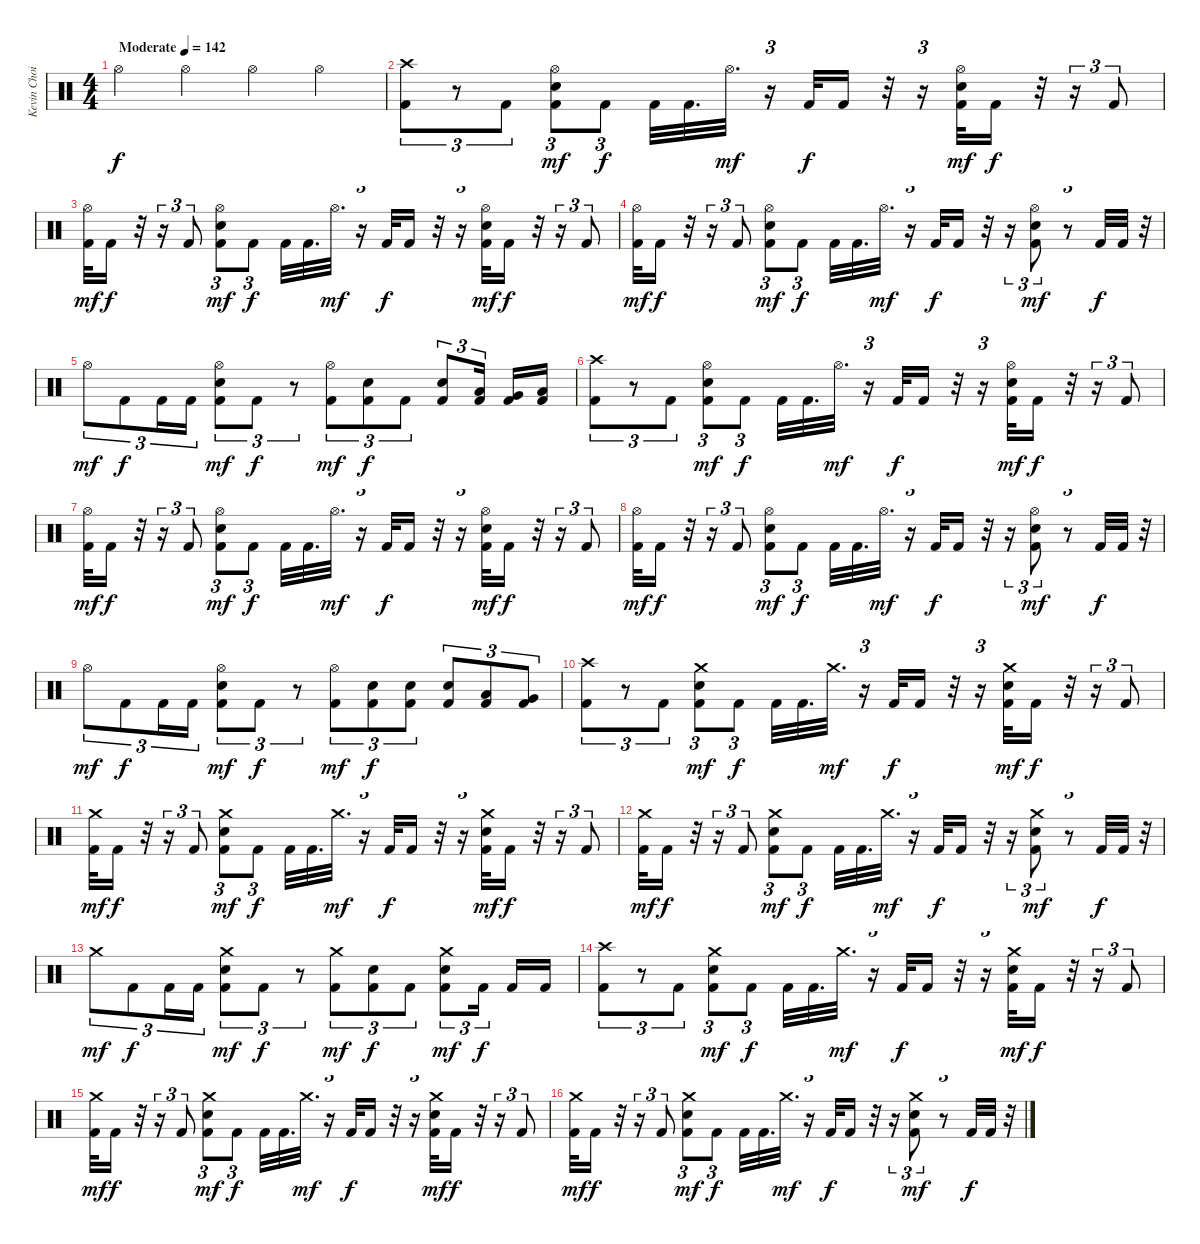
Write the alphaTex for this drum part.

\track ("Kevin Choiral" "Kevin Choi") {instrument percussion}
\staff
\articulation defaults
\ts (4 4)
\tempo (142 "Moderate")
\clef neutral
\ks c "Hi-Hat (open)".4{dy f} "Hi-Hat (open)".4 "Hi-Hat (open)".4 "Hi-Hat (open)".4
|
("Crash high (hit)" "Kick (hit) 2").8{tu (3 2)} r.8{tu (3 2)} "Kick (hit) 2".8{tu (3 2)} ("Hi-Hat (open)" "Electric Snare (hit)" "Kick (hit) 2").8{tu (3 2) dy mf} "Kick (hit) 2".8{tu (3 2) dy f} "Kick (hit) 2".32 "Kick (hit) 2".32{d} "Hi-Hat (open)".32{d dy mf} r.16{tu (3 2)} "Kick (hit) 2".32{dy f} "Kick (hit) 2".16 r.32 r.16{tu (3 2)} ("Hi-Hat (open)" "Electric Snare (hit)" "Kick (hit) 2").32{dy mf} "Kick (hit) 2".16{dy f} r.32 r.16{tu (3 2)} "Kick (hit) 2".8{tu (3 2)} |
("Hi-Hat (open)" "Kick (hit) 2").32{dy mf} "Kick (hit) 2".16{dy f} r.32 r.16{tu (3 2)} "Kick (hit) 2".8{tu (3 2)} ("Hi-Hat (open)" "Electric Snare (hit)" "Kick (hit) 2").8{tu (3 2) dy mf} "Kick (hit) 2".8{tu (3 2) dy f} "Kick (hit) 2".32 "Kick (hit) 2".32{d} "Hi-Hat (open)".32{d dy mf} r.16{tu (3 2)} "Kick (hit) 2".32{dy f} "Kick (hit) 2".16 r.32 r.16{tu (3 2)} ("Hi-Hat (open)" "Electric Snare (hit)" "Kick (hit) 2").32{dy mf} "Kick (hit) 2".16{dy f} r.32 r.16{tu (3 2)} "Kick (hit) 2".8{tu (3 2)} |
("Hi-Hat (open)" "Kick (hit) 2").32{dy mf} "Kick (hit) 2".16{dy f} r.32 r.16{tu (3 2)} "Kick (hit) 2".8{tu (3 2)} ("Hi-Hat (open)" "Electric Snare (hit)" "Kick (hit) 2").8{tu (3 2) dy mf} "Kick (hit) 2".8{tu (3 2) dy f} "Kick (hit) 2".32 "Kick (hit) 2".32{d} "Hi-Hat (open)".32{d dy mf} r.16{tu (3 2)} "Kick (hit) 2".32{dy f} "Kick (hit) 2".16 r.32 r.16{tu (3 2)} ("Hi-Hat (open)" "Electric Snare (hit)" "Kick (hit) 2").8{tu (3 2) dy mf} r.8{tu (3 2)} "Kick (hit) 2".32{dy f} "Kick (hit) 2".32 r.32{tu (3 2)} |
"Hi-Hat (open)".8{tu (3 2) dy mf} "Kick (hit) 2".8{tu (3 2) dy f} "Kick (hit) 2".16{tu (3 2)} "Kick (hit) 2".16{tu (3 2)} ("Hi-Hat (open)" "Electric Snare (hit)" "Kick (hit) 2").8{tu (3 2) dy mf} "Kick (hit) 2".8{tu (3 2) dy f} r.8{tu (3 2)} ("Hi-Hat (open)" "Kick (hit) 2").8{tu (3 2) dy mf} ("Electric Snare (hit)" "Kick (hit) 2").8{tu (3 2) dy f} "Kick (hit) 2".8{tu (3 2)} ("Electric Snare (hit)" "Kick (hit) 2").8{tu (3 2)} ("Low Tom (hit)" "Kick (hit) 2").16{tu (3 2) beam splitsecondary} ("Very Low Tom (hit)" "Kick (hit) 2").16 ("Low Floor Tom (hit)" "Kick (hit) 2").16 |
("Crash high (hit)" "Kick (hit) 2").8{tu (3 2)} r.8{tu (3 2)} "Kick (hit) 2".8{tu (3 2)} ("Hi-Hat (open)" "Electric Snare (hit)" "Kick (hit) 2").8{tu (3 2) dy mf} "Kick (hit) 2".8{tu (3 2) dy f} "Kick (hit) 2".32 "Kick (hit) 2".32{d} "Hi-Hat (open)".32{d dy mf} r.16{tu (3 2)} "Kick (hit) 2".32{dy f} "Kick (hit) 2".16 r.32 r.16{tu (3 2)} ("Hi-Hat (open)" "Electric Snare (hit)" "Kick (hit) 2").32{dy mf} "Kick (hit) 2".16{dy f} r.32 r.16{tu (3 2)} "Kick (hit) 2".8{tu (3 2)} |
("Hi-Hat (open)" "Kick (hit) 2").32{dy mf} "Kick (hit) 2".16{dy f} r.32 r.16{tu (3 2)} "Kick (hit) 2".8{tu (3 2)} ("Hi-Hat (open)" "Electric Snare (hit)" "Kick (hit) 2").8{tu (3 2) dy mf} "Kick (hit) 2".8{tu (3 2) dy f} "Kick (hit) 2".32 "Kick (hit) 2".32{d} "Hi-Hat (open)".32{d dy mf} r.16{tu (3 2)} "Kick (hit) 2".32{dy f} "Kick (hit) 2".16 r.32 r.16{tu (3 2)} ("Hi-Hat (open)" "Electric Snare (hit)" "Kick (hit) 2").32{dy mf} "Kick (hit) 2".16{dy f} r.32 r.16{tu (3 2)} "Kick (hit) 2".8{tu (3 2)} |
("Hi-Hat (open)" "Kick (hit) 2").32{dy mf} "Kick (hit) 2".16{dy f} r.32 r.16{tu (3 2)} "Kick (hit) 2".8{tu (3 2)} ("Hi-Hat (open)" "Electric Snare (hit)" "Kick (hit) 2").8{tu (3 2) dy mf} "Kick (hit) 2".8{tu (3 2) dy f} "Kick (hit) 2".32 "Kick (hit) 2".32{d} "Hi-Hat (open)".32{d dy mf} r.16{tu (3 2)} "Kick (hit) 2".32{dy f} "Kick (hit) 2".16 r.32 r.16{tu (3 2)} ("Hi-Hat (open)" "Electric Snare (hit)" "Kick (hit) 2").8{tu (3 2) dy mf} r.8{tu (3 2)} "Kick (hit) 2".32{dy f} "Kick (hit) 2".32 r.32{tu (3 2)} |
"Hi-Hat (open)".8{tu (3 2) dy mf} "Kick (hit) 2".8{tu (3 2) dy f} "Kick (hit) 2".16{tu (3 2)} "Kick (hit) 2".16{tu (3 2)} ("Hi-Hat (open)" "Electric Snare (hit)" "Kick (hit) 2").8{tu (3 2) dy mf} "Kick (hit) 2".8{tu (3 2) dy f} r.8{tu (3 2)} ("Hi-Hat (open)" "Kick (hit) 2").8{tu (3 2) dy mf} ("Electric Snare (hit)" "Kick (hit) 2").8{tu (3 2) dy f} ("Electric Snare (hit)" "Kick (hit) 2").8{tu (3 2)} ("Electric Snare (hit)" "Kick (hit) 2").8{tu (3 2)} ("Low Tom (hit)" "Kick (hit) 2").8{tu (3 2)} ("Very Low Tom (hit)" "Kick (hit) 2").8{tu (3 2)} |
("Crash high (hit)" "Kick (hit) 2").8{tu (3 2)} r.8{tu (3 2)} "Kick (hit) 2".8{tu (3 2)} ("Crash medium (hit)" "Electric Snare (hit)" "Kick (hit) 2").8{tu (3 2) dy mf} "Kick (hit) 2".8{tu (3 2) dy f} "Kick (hit) 2".32 "Kick (hit) 2".32{d} "Crash medium (hit)".32{d dy mf} r.16{tu (3 2)} "Kick (hit) 2".32{dy f} "Kick (hit) 2".16 r.32 r.16{tu (3 2)} ("Crash medium (hit)" "Electric Snare (hit)" "Kick (hit) 2").32{dy mf} "Kick (hit) 2".16{dy f} r.32 r.16{tu (3 2)} "Kick (hit) 2".8{tu (3 2)} |
("Crash medium (hit)" "Kick (hit) 2").32{dy mf} "Kick (hit) 2".16{dy f} r.32 r.16{tu (3 2)} "Kick (hit) 2".8{tu (3 2)} ("Crash medium (hit)" "Electric Snare (hit)" "Kick (hit) 2").8{tu (3 2) dy mf} "Kick (hit) 2".8{tu (3 2) dy f} "Kick (hit) 2".32 "Kick (hit) 2".32{d} "Crash medium (hit)".32{d dy mf} r.16{tu (3 2)} "Kick (hit) 2".32{dy f} "Kick (hit) 2".16 r.32 r.16{tu (3 2)} ("Crash medium (hit)" "Electric Snare (hit)" "Kick (hit) 2").32{dy mf} "Kick (hit) 2".16{dy f} r.32 r.16{tu (3 2)} "Kick (hit) 2".8{tu (3 2)} |
("Crash medium (hit)" "Kick (hit) 2").32{dy mf} "Kick (hit) 2".16{dy f} r.32 r.16{tu (3 2)} "Kick (hit) 2".8{tu (3 2)} ("Crash medium (hit)" "Electric Snare (hit)" "Kick (hit) 2").8{tu (3 2) dy mf} "Kick (hit) 2".8{tu (3 2) dy f} "Kick (hit) 2".32 "Kick (hit) 2".32{d} "Crash medium (hit)".32{d dy mf} r.16{tu (3 2)} "Kick (hit) 2".32{dy f} "Kick (hit) 2".16 r.32 r.16{tu (3 2)} ("Crash medium (hit)" "Electric Snare (hit)" "Kick (hit) 2").8{tu (3 2) dy mf} r.8{tu (3 2)} "Kick (hit) 2".32{dy f} "Kick (hit) 2".32 r.32{tu (3 2)} |
"Crash medium (hit)".8{tu (3 2) dy mf} "Kick (hit) 2".8{tu (3 2) dy f} "Kick (hit) 2".16{tu (3 2)} "Kick (hit) 2".16{tu (3 2)} ("Crash medium (hit)" "Electric Snare (hit)" "Kick (hit) 2").8{tu (3 2) dy mf} "Kick (hit) 2".8{tu (3 2) dy f} r.8{tu (3 2)} ("Crash medium (hit)" "Kick (hit) 2").8{tu (3 2) dy mf} ("Electric Snare (hit)" "Kick (hit) 2").8{tu (3 2) dy f} "Kick (hit) 2".8{tu (3 2)} ("Crash medium (hit)" "Electric Snare (hit)" "Kick (hit) 2").8{tu (3 2) dy mf} "Kick (hit) 2".16{tu (3 2) dy f beam splitsecondary} "Kick (hit) 2".16 "Kick (hit) 2".16 |
("Crash high (hit)" "Kick (hit) 2").8{tu (3 2)} r.8{tu (3 2)} "Kick (hit) 2".8{tu (3 2)} ("Crash medium (hit)" "Electric Snare (hit)" "Kick (hit) 2").8{tu (3 2) dy mf} "Kick (hit) 2".8{tu (3 2) dy f} "Kick (hit) 2".32 "Kick (hit) 2".32{d} "Crash medium (hit)".32{d dy mf} r.16{tu (3 2)} "Kick (hit) 2".32{dy f} "Kick (hit) 2".16 r.32 r.16{tu (3 2)} ("Crash medium (hit)" "Electric Snare (hit)" "Kick (hit) 2").32{dy mf} "Kick (hit) 2".16{dy f} r.32 r.16{tu (3 2)} "Kick (hit) 2".8{tu (3 2)} |
("Crash medium (hit)" "Kick (hit) 2").32{dy mf} "Kick (hit) 2".16{dy f} r.32 r.16{tu (3 2)} "Kick (hit) 2".8{tu (3 2)} ("Crash medium (hit)" "Electric Snare (hit)" "Kick (hit) 2").8{tu (3 2) dy mf} "Kick (hit) 2".8{tu (3 2) dy f} "Kick (hit) 2".32 "Kick (hit) 2".32{d} "Crash medium (hit)".32{d dy mf} r.16{tu (3 2)} "Kick (hit) 2".32{dy f} "Kick (hit) 2".16 r.32 r.16{tu (3 2)} ("Crash medium (hit)" "Electric Snare (hit)" "Kick (hit) 2").32{dy mf} "Kick (hit) 2".16{dy f} r.32 r.16{tu (3 2)} "Kick (hit) 2".8{tu (3 2)} |
("Crash medium (hit)" "Kick (hit) 2").32{dy mf} "Kick (hit) 2".16{dy f} r.32 r.16{tu (3 2)} "Kick (hit) 2".8{tu (3 2)} ("Crash medium (hit)" "Electric Snare (hit)" "Kick (hit) 2").8{tu (3 2) dy mf} "Kick (hit) 2".8{tu (3 2) dy f} "Kick (hit) 2".32 "Kick (hit) 2".32{d} "Crash medium (hit)".32{d dy mf} r.16{tu (3 2)} "Kick (hit) 2".32{dy f} "Kick (hit) 2".16 r.32 r.16{tu (3 2)} ("Crash medium (hit)" "Electric Snare (hit)" "Kick (hit) 2").8{tu (3 2) dy mf} r.8{tu (3 2)} "Kick (hit) 2".32{dy f} "Kick (hit) 2".32 r.32{tu (3 2)}
